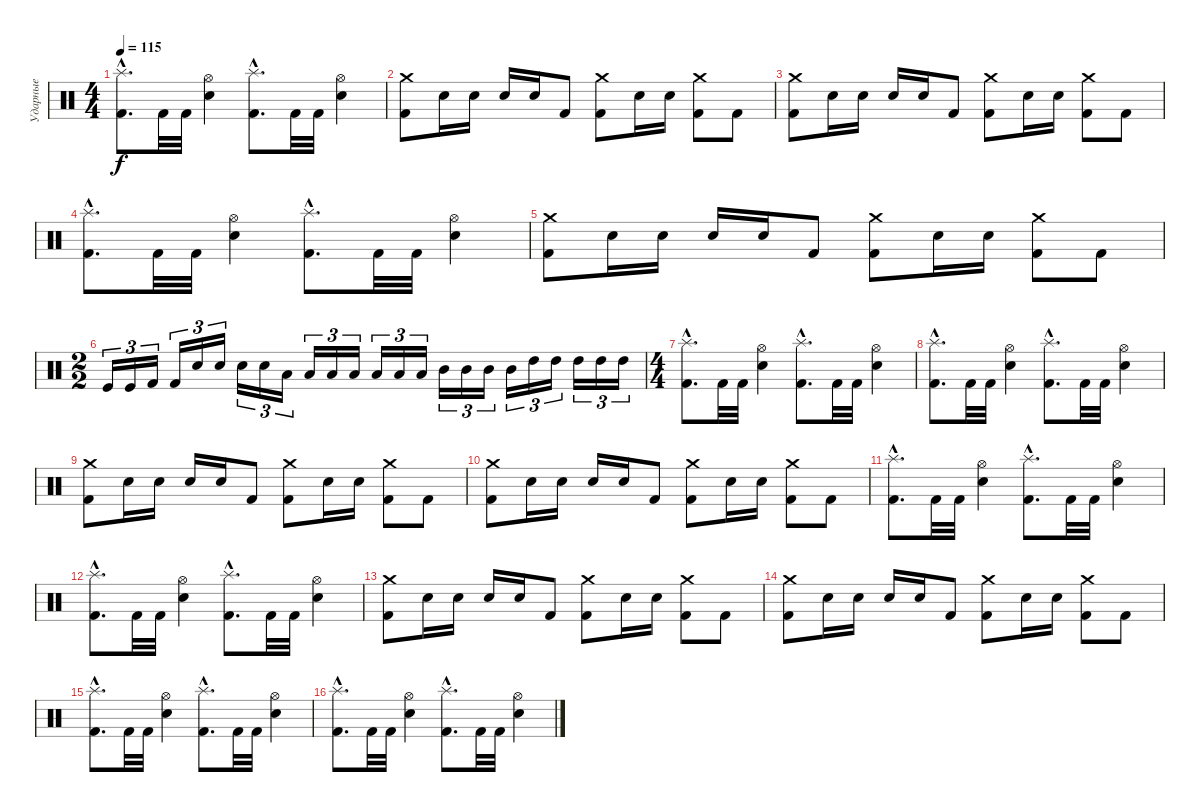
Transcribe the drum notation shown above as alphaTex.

\track ("Ударные" "Ударные") {instrument percussion}
\staff {score}
\articulation defaults
\ts (4 4)
\tempo 115
\clef neutral
\ks c
("Kick (hit) 2"{hac} "Splash (hit)"{hac}).8{d dy f} "Kick (hit) 2".32 "Kick (hit) 2".32 ("Hi-Hat (open)" "Electric Snare (hit)").4 ("Kick (hit) 2"{hac} "Splash (hit)"{hac}).8{d} "Kick (hit) 2".32 "Kick (hit) 2".32 ("Hi-Hat (open)" "Electric Snare (hit)").4 |
("Kick (hit) 2" "Crash medium (hit)").8 "Electric Snare (hit)".16 "Electric Snare (hit)".16 "Electric Snare (hit)".16 "Electric Snare (hit)".16 "Kick (hit) 2".8 ("Kick (hit) 2" "Crash medium (hit)").8 "Electric Snare (hit)".16 "Electric Snare (hit)".16 ("Kick (hit) 2" "Crash medium (hit)").8 "Kick (hit) 2".8 |
("Kick (hit) 2" "Crash medium (hit)").8 "Electric Snare (hit)".16 "Electric Snare (hit)".16 "Electric Snare (hit)".16 "Electric Snare (hit)".16 "Kick (hit) 2".8 ("Kick (hit) 2" "Crash medium (hit)").8 "Electric Snare (hit)".16 "Electric Snare (hit)".16 ("Kick (hit) 2" "Crash medium (hit)").8 "Kick (hit) 2".8 |
("Kick (hit) 2"{hac} "Splash (hit)"{hac}).8{d} "Kick (hit) 2".32 "Kick (hit) 2".32 ("Hi-Hat (open)" "Electric Snare (hit)").4 ("Kick (hit) 2"{hac} "Splash (hit)"{hac}).8{d} "Kick (hit) 2".32 "Kick (hit) 2".32 ("Hi-Hat (open)" "Electric Snare (hit)").4 |
("Kick (hit) 2" "Crash medium (hit)").8 "Electric Snare (hit)".16 "Electric Snare (hit)".16 "Electric Snare (hit)".16 "Electric Snare (hit)".16 "Kick (hit) 2".8 ("Kick (hit) 2" "Crash medium (hit)").8 "Electric Snare (hit)".16 "Electric Snare (hit)".16 ("Kick (hit) 2" "Crash medium (hit)").8 "Kick (hit) 2".8 |
\ts (2 2)
"Kick (hit)".16{tu (3 2)} "Kick (hit)".16{tu (3 2)} "Kick (hit) 2".16{tu (3 2)} "Kick (hit) 2".16{tu (3 2)} "Snare (hit) 2".16{tu (3 2)} "Snare (hit) 2".16{tu (3 2)} "Electric Snare (hit)".16{tu (3 2)} "Electric Snare (hit)".16{tu (3 2)} "Low Floor Tom (hit)".16{tu (3 2)} "Low Floor Tom (hit)".16{tu (3 2)} "Low Tom (hit)".16{tu (3 2)} "Low Tom (hit)".16{tu (3 2)} "Low Tom (hit)".16{tu (3 2)} "Low Tom (hit)".16{tu (3 2)} "Low Tom (hit)".16{tu (3 2)} "Mid Tom (hit)".16{tu (3 2)} "Mid Tom (hit)".16{tu (3 2)} "Mid Tom (hit)".16{tu (3 2)} "Mid Tom (hit)".16{tu (3 2)} "High Tom (hit)".16{tu (3 2)} "High Tom (hit)".16{tu (3 2)} "High Tom (hit)".16{tu (3 2)} "High Tom (hit)".16{tu (3 2)} "High Tom (hit)".16{tu (3 2)} |
\ts (4 4)
("Kick (hit) 2"{hac} "Splash (hit)"{hac}).8{d} "Kick (hit) 2".32 "Kick (hit) 2".32 ("Hi-Hat (open)" "Electric Snare (hit)").4 ("Kick (hit) 2"{hac} "Splash (hit)"{hac}).8{d} "Kick (hit) 2".32 "Kick (hit) 2".32 ("Hi-Hat (open)" "Electric Snare (hit)").4 |
("Kick (hit) 2"{hac} "Splash (hit)"{hac}).8{d} "Kick (hit) 2".32 "Kick (hit) 2".32 ("Hi-Hat (open)" "Electric Snare (hit)").4 ("Kick (hit) 2"{hac} "Splash (hit)"{hac}).8{d} "Kick (hit) 2".32 "Kick (hit) 2".32 ("Hi-Hat (open)" "Electric Snare (hit)").4 |
("Kick (hit) 2" "Crash medium (hit)").8 "Electric Snare (hit)".16 "Electric Snare (hit)".16 "Electric Snare (hit)".16 "Electric Snare (hit)".16 "Kick (hit) 2".8 ("Kick (hit) 2" "Crash medium (hit)").8 "Electric Snare (hit)".16 "Electric Snare (hit)".16 ("Kick (hit) 2" "Crash medium (hit)").8 "Kick (hit) 2".8 |
("Kick (hit) 2" "Crash medium (hit)").8 "Electric Snare (hit)".16 "Electric Snare (hit)".16 "Electric Snare (hit)".16 "Electric Snare (hit)".16 "Kick (hit) 2".8 ("Kick (hit) 2" "Crash medium (hit)").8 "Electric Snare (hit)".16 "Electric Snare (hit)".16 ("Kick (hit) 2" "Crash medium (hit)").8 "Kick (hit) 2".8 |
("Kick (hit) 2"{hac} "Splash (hit)"{hac}).8{d} "Kick (hit) 2".32 "Kick (hit) 2".32 ("Hi-Hat (open)" "Electric Snare (hit)").4 ("Kick (hit) 2"{hac} "Splash (hit)"{hac}).8{d} "Kick (hit) 2".32 "Kick (hit) 2".32 ("Hi-Hat (open)" "Electric Snare (hit)").4 |
("Kick (hit) 2"{hac} "Splash (hit)"{hac}).8{d} "Kick (hit) 2".32 "Kick (hit) 2".32 ("Hi-Hat (open)" "Electric Snare (hit)").4 ("Kick (hit) 2"{hac} "Splash (hit)"{hac}).8{d} "Kick (hit) 2".32 "Kick (hit) 2".32 ("Hi-Hat (open)" "Electric Snare (hit)").4 |
("Kick (hit) 2" "Crash medium (hit)").8 "Electric Snare (hit)".16 "Electric Snare (hit)".16 "Electric Snare (hit)".16 "Electric Snare (hit)".16 "Kick (hit) 2".8 ("Kick (hit) 2" "Crash medium (hit)").8 "Electric Snare (hit)".16 "Electric Snare (hit)".16 ("Kick (hit) 2" "Crash medium (hit)").8 "Kick (hit) 2".8 |
("Kick (hit) 2" "Crash medium (hit)").8 "Electric Snare (hit)".16 "Electric Snare (hit)".16 "Electric Snare (hit)".16 "Electric Snare (hit)".16 "Kick (hit) 2".8 ("Kick (hit) 2" "Crash medium (hit)").8 "Electric Snare (hit)".16 "Electric Snare (hit)".16 ("Kick (hit) 2" "Crash medium (hit)").8 "Kick (hit) 2".8 |
("Kick (hit) 2"{hac} "Splash (hit)"{hac}).8{d} "Kick (hit) 2".32 "Kick (hit) 2".32 ("Hi-Hat (open)" "Electric Snare (hit)").4 ("Kick (hit) 2"{hac} "Splash (hit)"{hac}).8{d} "Kick (hit) 2".32 "Kick (hit) 2".32 ("Hi-Hat (open)" "Electric Snare (hit)").4 |
("Kick (hit) 2"{hac} "Splash (hit)"{hac}).8{d} "Kick (hit) 2".32 "Kick (hit) 2".32 ("Hi-Hat (open)" "Electric Snare (hit)").4 ("Kick (hit) 2"{hac} "Splash (hit)"{hac}).8{d} "Kick (hit) 2".32 "Kick (hit) 2".32 ("Hi-Hat (open)" "Electric Snare (hit)").4
